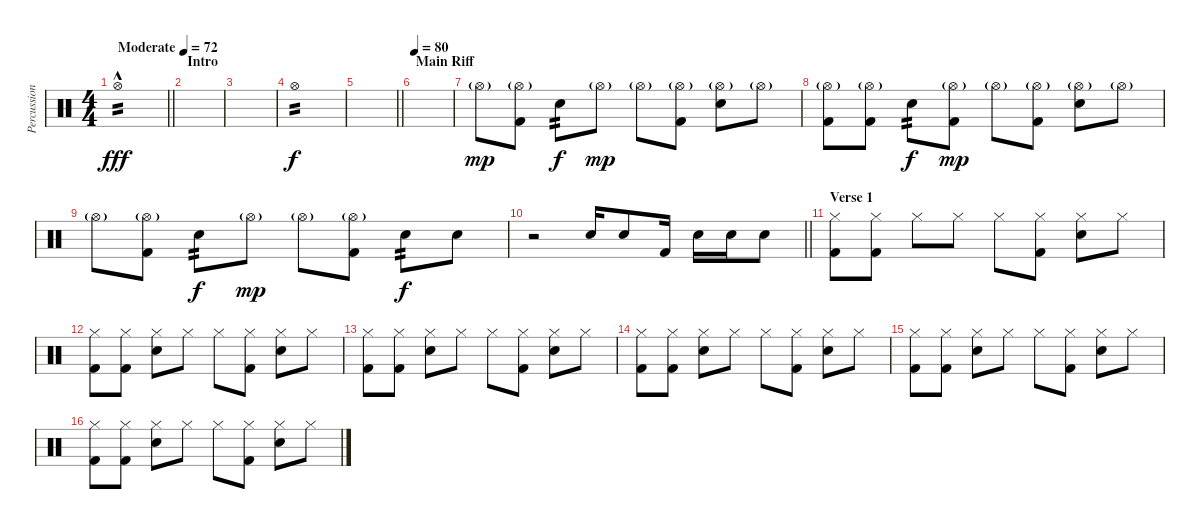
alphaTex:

\track ("Percussion" "Percussion") {instrument percussion}
\staff {score}
\articulation defaults
\ts (4 4)
\tempo (72 "Moderate")
\clef neutral
\barLineRight lightlight
\ks c "Hi-Hat (open)"{hac}.1{tp 2 dy fff volume 13}
|
\section ("" "Intro")
|
|
"Hi-Hat (open)".1{tp 2 dy f volume 13} |
\barLineRight lightlight
|
\section ("" "Main Riff")
\tempo 80
|
"Hi-Hat (open)"{g}.8{dy mp volume 10} ("Hi-Hat (open)"{g} "Kick (hit) 2").8 "Snare (hit) 2".8{tp 2 dy f} "Hi-Hat (open)"{g}.8{dy mp} "Hi-Hat (open)"{g}.8 ("Hi-Hat (open)"{g} "Kick (hit) 2").8 ("Hi-Hat (open)"{g} "Snare (hit) 2").8 "Hi-Hat (open)"{g}.8 |
("Hi-Hat (open)"{g} "Kick (hit) 2").8 ("Hi-Hat (open)"{g} "Kick (hit) 2").8 "Snare (hit) 2".8{tp 2 dy f} ("Hi-Hat (open)"{g} "Kick (hit) 2").8{dy mp} "Hi-Hat (open)"{g}.8 ("Hi-Hat (open)"{g} "Kick (hit) 2").8 ("Hi-Hat (open)"{g} "Snare (hit) 2").8 "Hi-Hat (open)"{g}.8 |
"Hi-Hat (open)"{g}.8 ("Hi-Hat (open)"{g} "Kick (hit) 2").8 "Snare (hit) 2".8{tp 2 dy f} "Hi-Hat (open)"{g}.8{dy mp} "Hi-Hat (open)"{g}.8 ("Hi-Hat (open)"{g} "Kick (hit) 2").8 "Snare (hit) 2".8{tp 2 dy f} "Snare (hit) 2".8 |
\barLineRight lightlight
r.2 "Snare (hit) 2".16 "Snare (hit) 2".8 "Kick (hit) 2".16 "Snare (hit) 2".16 "Snare (hit) 2".16 "Snare (hit) 2".8 |
\section ("" "Verse 1")
("Hi-Hat (closed)" "Kick (hit) 2").8 ("Hi-Hat (closed)" "Kick (hit) 2").8 "Hi-Hat (closed)".8 "Hi-Hat (closed)".8 "Hi-Hat (closed)".8 ("Hi-Hat (closed)" "Kick (hit) 2").8 ("Hi-Hat (closed)" "Snare (hit) 2").8 "Hi-Hat (closed)".8 |
("Hi-Hat (closed)" "Kick (hit) 2").8 ("Hi-Hat (closed)" "Kick (hit) 2").8 ("Hi-Hat (closed)" "Snare (hit) 2").8 "Hi-Hat (closed)".8 "Hi-Hat (closed)".8 ("Hi-Hat (closed)" "Kick (hit) 2").8 ("Hi-Hat (closed)" "Snare (hit) 2").8 "Hi-Hat (closed)".8 |
("Hi-Hat (closed)" "Kick (hit) 2").8 ("Hi-Hat (closed)" "Kick (hit) 2").8 ("Hi-Hat (closed)" "Snare (hit) 2").8 "Hi-Hat (closed)".8 "Hi-Hat (closed)".8 ("Hi-Hat (closed)" "Kick (hit) 2").8 ("Hi-Hat (closed)" "Snare (hit) 2").8 "Hi-Hat (closed)".8 |
("Hi-Hat (closed)" "Kick (hit) 2").8 ("Hi-Hat (closed)" "Kick (hit) 2").8 ("Hi-Hat (closed)" "Snare (hit) 2").8 "Hi-Hat (closed)".8 "Hi-Hat (closed)".8 ("Hi-Hat (closed)" "Kick (hit) 2").8 ("Hi-Hat (closed)" "Snare (hit) 2").8 "Hi-Hat (closed)".8 |
("Hi-Hat (closed)" "Kick (hit) 2").8 ("Hi-Hat (closed)" "Kick (hit) 2").8 ("Hi-Hat (closed)" "Snare (hit) 2").8 "Hi-Hat (closed)".8 "Hi-Hat (closed)".8 ("Hi-Hat (closed)" "Kick (hit) 2").8 ("Hi-Hat (closed)" "Snare (hit) 2").8 "Hi-Hat (closed)".8 |
("Hi-Hat (closed)" "Kick (hit) 2").8 ("Hi-Hat (closed)" "Kick (hit) 2").8 ("Hi-Hat (closed)" "Snare (hit) 2").8 "Hi-Hat (closed)".8 "Hi-Hat (closed)".8 ("Hi-Hat (closed)" "Kick (hit) 2").8 ("Hi-Hat (closed)" "Snare (hit) 2").8 "Hi-Hat (closed)".8
